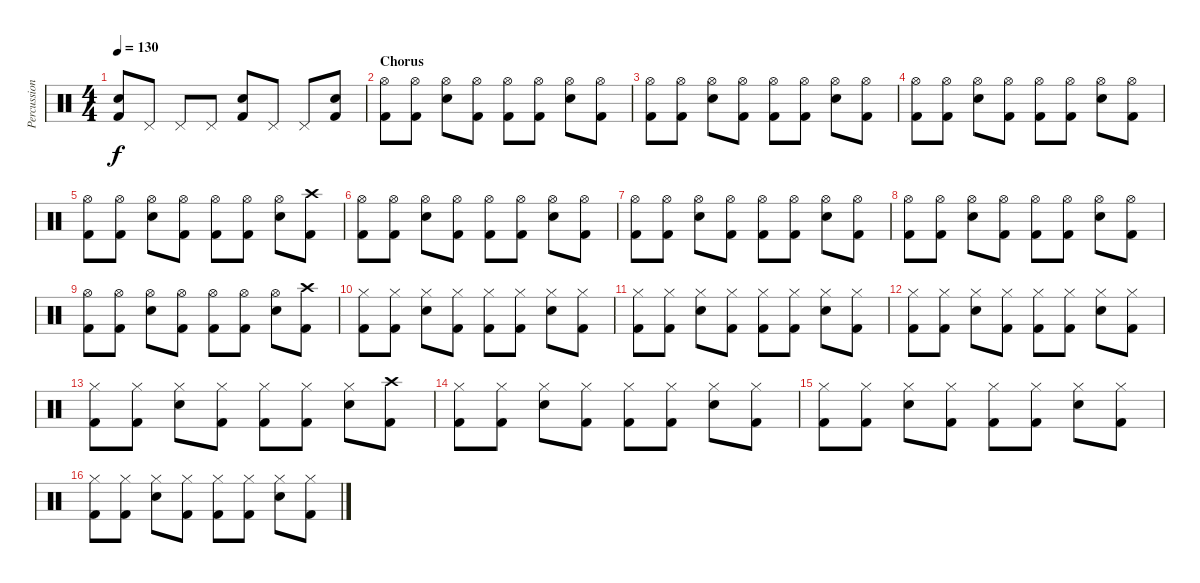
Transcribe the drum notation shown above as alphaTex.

\track ("Percussion" "Percussion") {instrument percussion}
\staff {score}
\articulation defaults
\ts (4 4)
\tempo 130
\clef neutral
\ks c
("Electric Snare (hit)" "Kick (hit) 2").8{dy f} "Pedal Hi-Hat (hit)".8 "Pedal Hi-Hat (hit)".8 "Pedal Hi-Hat (hit)".8 ("Electric Snare (hit)" "Kick (hit) 2").8 "Pedal Hi-Hat (hit)".8 "Pedal Hi-Hat (hit)".8 ("Electric Snare (hit)" "Kick (hit) 2").8 |
\section ("" "Chorus")
("Hi-Hat (open)" "Kick (hit) 2").8 ("Hi-Hat (open)" "Kick (hit) 2").8 ("Hi-Hat (open)" "Electric Snare (hit)").8 ("Hi-Hat (open)" "Kick (hit) 2").8 ("Hi-Hat (open)" "Kick (hit) 2").8 ("Hi-Hat (open)" "Kick (hit) 2").8 ("Hi-Hat (open)" "Electric Snare (hit)").8 ("Hi-Hat (open)" "Kick (hit) 2").8 |
("Hi-Hat (open)" "Kick (hit) 2").8 ("Hi-Hat (open)" "Kick (hit) 2").8 ("Hi-Hat (open)" "Electric Snare (hit)").8 ("Hi-Hat (open)" "Kick (hit) 2").8 ("Hi-Hat (open)" "Kick (hit) 2").8 ("Hi-Hat (open)" "Kick (hit) 2").8 ("Hi-Hat (open)" "Electric Snare (hit)").8 ("Hi-Hat (open)" "Kick (hit) 2").8 |
("Hi-Hat (open)" "Kick (hit) 2").8 ("Hi-Hat (open)" "Kick (hit) 2").8 ("Hi-Hat (open)" "Electric Snare (hit)").8 ("Hi-Hat (open)" "Kick (hit) 2").8 ("Hi-Hat (open)" "Kick (hit) 2").8 ("Hi-Hat (open)" "Kick (hit) 2").8 ("Hi-Hat (open)" "Electric Snare (hit)").8 ("Hi-Hat (open)" "Kick (hit) 2").8 |
("Hi-Hat (open)" "Kick (hit) 2").8 ("Hi-Hat (open)" "Kick (hit) 2").8 ("Hi-Hat (open)" "Electric Snare (hit)").8 ("Hi-Hat (open)" "Kick (hit) 2").8 ("Hi-Hat (open)" "Kick (hit) 2").8 ("Hi-Hat (open)" "Kick (hit) 2").8 ("Hi-Hat (open)" "Electric Snare (hit)").8 ("Crash high (hit)" "Kick (hit) 2").8 |
("Hi-Hat (open)" "Kick (hit) 2").8 ("Hi-Hat (open)" "Kick (hit) 2").8 ("Hi-Hat (open)" "Electric Snare (hit)").8 ("Hi-Hat (open)" "Kick (hit) 2").8 ("Hi-Hat (open)" "Kick (hit) 2").8 ("Hi-Hat (open)" "Kick (hit) 2").8 ("Hi-Hat (open)" "Electric Snare (hit)").8 ("Hi-Hat (open)" "Kick (hit) 2").8 |
("Hi-Hat (open)" "Kick (hit) 2").8 ("Hi-Hat (open)" "Kick (hit) 2").8 ("Hi-Hat (open)" "Electric Snare (hit)").8 ("Hi-Hat (open)" "Kick (hit) 2").8 ("Hi-Hat (open)" "Kick (hit) 2").8 ("Hi-Hat (open)" "Kick (hit) 2").8 ("Hi-Hat (open)" "Electric Snare (hit)").8 ("Hi-Hat (open)" "Kick (hit) 2").8 |
("Hi-Hat (open)" "Kick (hit) 2").8 ("Hi-Hat (open)" "Kick (hit) 2").8 ("Hi-Hat (open)" "Electric Snare (hit)").8 ("Hi-Hat (open)" "Kick (hit) 2").8 ("Hi-Hat (open)" "Kick (hit) 2").8 ("Hi-Hat (open)" "Kick (hit) 2").8 ("Hi-Hat (open)" "Electric Snare (hit)").8 ("Hi-Hat (open)" "Kick (hit) 2").8 |
("Hi-Hat (open)" "Kick (hit) 2").8 ("Hi-Hat (open)" "Kick (hit) 2").8 ("Hi-Hat (open)" "Electric Snare (hit)").8 ("Hi-Hat (open)" "Kick (hit) 2").8 ("Hi-Hat (open)" "Kick (hit) 2").8 ("Hi-Hat (open)" "Kick (hit) 2").8 ("Hi-Hat (open)" "Electric Snare (hit)").8 ("Crash high (hit)" "Kick (hit) 2").8 |
("Hi-Hat (closed)" "Kick (hit) 2").8 ("Hi-Hat (closed)" "Kick (hit) 2").8 ("Hi-Hat (closed)" "Electric Snare (hit)").8 ("Hi-Hat (closed)" "Kick (hit) 2").8 ("Hi-Hat (closed)" "Kick (hit) 2").8 ("Hi-Hat (closed)" "Kick (hit) 2").8 ("Hi-Hat (closed)" "Electric Snare (hit)").8 ("Hi-Hat (closed)" "Kick (hit) 2").8 |
("Hi-Hat (closed)" "Kick (hit) 2").8 ("Hi-Hat (closed)" "Kick (hit) 2").8 ("Hi-Hat (closed)" "Electric Snare (hit)").8 ("Hi-Hat (closed)" "Kick (hit) 2").8 ("Hi-Hat (closed)" "Kick (hit) 2").8 ("Hi-Hat (closed)" "Kick (hit) 2").8 ("Hi-Hat (closed)" "Electric Snare (hit)").8 ("Hi-Hat (closed)" "Kick (hit) 2").8 |
("Hi-Hat (closed)" "Kick (hit) 2").8 ("Hi-Hat (closed)" "Kick (hit) 2").8 ("Hi-Hat (closed)" "Electric Snare (hit)").8 ("Hi-Hat (closed)" "Kick (hit) 2").8 ("Hi-Hat (closed)" "Kick (hit) 2").8 ("Hi-Hat (closed)" "Kick (hit) 2").8 ("Hi-Hat (closed)" "Electric Snare (hit)").8 ("Hi-Hat (closed)" "Kick (hit) 2").8 |
("Hi-Hat (closed)" "Kick (hit) 2").8 ("Hi-Hat (closed)" "Kick (hit) 2").8 ("Hi-Hat (closed)" "Electric Snare (hit)").8 ("Hi-Hat (closed)" "Kick (hit) 2").8 ("Hi-Hat (closed)" "Kick (hit) 2").8 ("Hi-Hat (closed)" "Kick (hit) 2").8 ("Hi-Hat (closed)" "Electric Snare (hit)").8 ("Crash high (hit)" "Kick (hit) 2").8 |
("Hi-Hat (closed)" "Kick (hit) 2").8 ("Hi-Hat (closed)" "Kick (hit) 2").8 ("Hi-Hat (closed)" "Electric Snare (hit)").8 ("Hi-Hat (closed)" "Kick (hit) 2").8 ("Hi-Hat (closed)" "Kick (hit) 2").8 ("Hi-Hat (closed)" "Kick (hit) 2").8 ("Hi-Hat (closed)" "Electric Snare (hit)").8 ("Hi-Hat (closed)" "Kick (hit) 2").8 |
("Hi-Hat (closed)" "Kick (hit) 2").8 ("Hi-Hat (closed)" "Kick (hit) 2").8 ("Hi-Hat (closed)" "Electric Snare (hit)").8 ("Hi-Hat (closed)" "Kick (hit) 2").8 ("Hi-Hat (closed)" "Kick (hit) 2").8 ("Hi-Hat (closed)" "Kick (hit) 2").8 ("Hi-Hat (closed)" "Electric Snare (hit)").8 ("Hi-Hat (closed)" "Kick (hit) 2").8 |
("Hi-Hat (closed)" "Kick (hit) 2").8 ("Hi-Hat (closed)" "Kick (hit) 2").8 ("Hi-Hat (closed)" "Electric Snare (hit)").8 ("Hi-Hat (closed)" "Kick (hit) 2").8 ("Hi-Hat (closed)" "Kick (hit) 2").8 ("Hi-Hat (closed)" "Kick (hit) 2").8 ("Hi-Hat (closed)" "Electric Snare (hit)").8 ("Hi-Hat (closed)" "Kick (hit) 2").8
